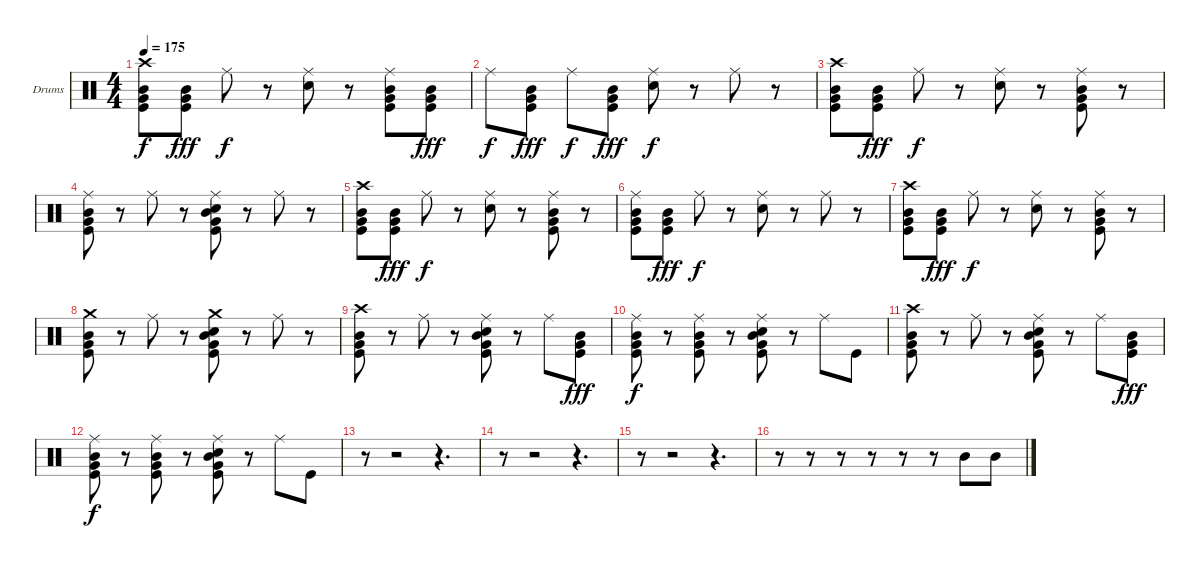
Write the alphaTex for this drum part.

\bracketExtendMode groupsimilarinstruments
\firstSystemTrackNameOrientation horizontal
\otherSystemsTrackNameOrientation horizontal
\track ("Drumkit" "Drums") {instrument percussion}
\staff {score}
\articulation defaults
\ts (4 4)
\tempo 175
\clef neutral
\ks c
("Crash high (hit)" "Mid Tom (hit)" "Very Low Tom (hit)" "Kick (hit)").8{dy f} ("Mid Tom (hit)" "Very Low Tom (hit)" "Kick (hit)").8{dy fff} "Ride (middle)".8{dy f} r.8 ("Ride (middle)" "Snare (hit) 2").8 r.8 ("Ride (middle)" "Mid Tom (hit)" "Very Low Tom (hit)" "Kick (hit)").8 ("Mid Tom (hit)" "Very Low Tom (hit)" "Kick (hit)").8{dy fff} |
"Ride (middle)".8{dy f} ("Mid Tom (hit)" "Very Low Tom (hit)" "Kick (hit)").8{dy fff} "Ride (middle)".8{dy f} ("Mid Tom (hit)" "Kick (hit)" "Very Low Tom (hit)").8{dy fff} ("Ride (middle)" "Snare (hit) 2").8{dy f} r.8 "Ride (middle)".8 r.8 |
("Crash high (hit)" "Mid Tom (hit)" "Very Low Tom (hit)" "Kick (hit)").8 ("Mid Tom (hit)" "Very Low Tom (hit)" "Kick (hit)").8{dy fff} "Ride (middle)".8{dy f} r.8 ("Ride (middle)" "Snare (hit) 2").8 r.8 ("Ride (middle)" "Mid Tom (hit)" "Very Low Tom (hit)" "Kick (hit)").8 r.8 |
("Ride (middle)" "Mid Tom (hit)" "Very Low Tom (hit)" "Kick (hit)").8 r.8 "Ride (middle)".8 r.8 ("Ride (middle)" "Snare (hit) 2" "Mid Tom (hit)" "Very Low Tom (hit)" "Kick (hit)").8 r.8 "Ride (middle)".8 r.8 |
("Crash high (hit)" "Mid Tom (hit)" "Very Low Tom (hit)" "Kick (hit)").8 ("Mid Tom (hit)" "Very Low Tom (hit)" "Kick (hit)").8{dy fff} "Ride (middle)".8{dy f} r.8 ("Ride (middle)" "Snare (hit) 2").8 r.8 ("Ride (middle)" "Mid Tom (hit)" "Very Low Tom (hit)" "Kick (hit)").8 r.8 |
("Ride (middle)" "Mid Tom (hit)" "Very Low Tom (hit)" "Kick (hit)").8 ("Mid Tom (hit)" "Very Low Tom (hit)" "Kick (hit)").8{dy fff} "Ride (middle)".8{dy f} r.8 ("Ride (middle)" "Snare (hit) 2").8 r.8 "Ride (middle)".8 r.8 |
("Crash high (hit)" "Mid Tom (hit)" "Very Low Tom (hit)" "Kick (hit)").8 ("Mid Tom (hit)" "Very Low Tom (hit)" "Kick (hit)").8{dy fff} "Ride (middle)".8{dy f} r.8 ("Ride (middle)" "Snare (hit) 2").8 r.8 ("Ride (middle)" "Mid Tom (hit)" "Very Low Tom (hit)" "Kick (hit)").8 r.8 |
("Crash medium (hit)" "Mid Tom (hit)" "Very Low Tom (hit)" "Kick (hit)").8 r.8 "Ride (middle)".8 r.8 ("Crash medium (hit)" "Snare (hit) 2" "Mid Tom (hit)" "Very Low Tom (hit)" "Kick (hit)").8 r.8 "Ride (middle)".8 r.8 |
("Crash high (hit)" "Mid Tom (hit)" "Very Low Tom (hit)" "Kick (hit)").8 r.8 "Ride (middle)".8 r.8 ("Ride (middle)" "Snare (hit) 2" "Mid Tom (hit)" "Very Low Tom (hit)" "Kick (hit)").8 r.8 "Ride (middle)".8 ("Mid Tom (hit)" "Very Low Tom (hit)" "Kick (hit)").8{dy fff} |
("Ride (middle)" "Mid Tom (hit)" "Very Low Tom (hit)" "Kick (hit)").8{dy f} r.8 ("Ride (middle)" "Mid Tom (hit)" "Very Low Tom (hit)" "Kick (hit)").8 r.8 ("Ride (middle)" "Snare (hit) 2" "Mid Tom (hit)" "Very Low Tom (hit)" "Kick (hit)").8 r.8 "Ride (middle)".8 "Kick (hit)".8 |
("Crash high (hit)" "Mid Tom (hit)" "Very Low Tom (hit)" "Kick (hit)").8 r.8 "Ride (middle)".8 r.8 ("Ride (middle)" "Snare (hit) 2" "Mid Tom (hit)" "Very Low Tom (hit)" "Kick (hit)").8 r.8 "Ride (middle)".8 ("Mid Tom (hit)" "Very Low Tom (hit)" "Kick (hit)").8{dy fff} |
("Ride (middle)" "Mid Tom (hit)" "Very Low Tom (hit)" "Kick (hit)").8{dy f} r.8 ("Ride (middle)" "Mid Tom (hit)" "Very Low Tom (hit)" "Kick (hit)").8 r.8 ("Ride (middle)" "Snare (hit) 2" "Mid Tom (hit)" "Very Low Tom (hit)" "Kick (hit)").8 r.8 "Ride (middle)".8 "Kick (hit)".8 |
r.8 r.2 r.4{d} |
r.8 r.2 r.4{d} |
r.8 r.2 r.4{d} |
r.8 r.8 r.8 r.8 r.8 r.8 "Mid Tom (hit)".8 "Mid Tom (hit)".8
